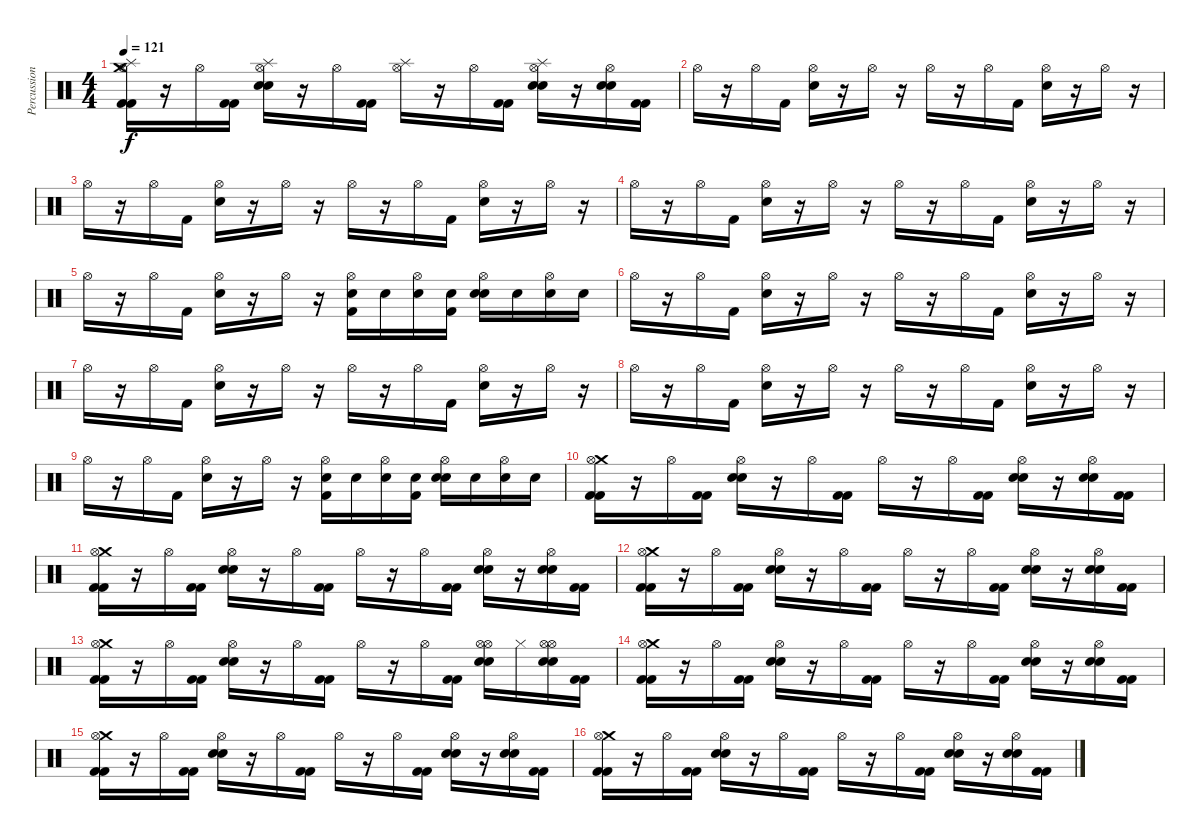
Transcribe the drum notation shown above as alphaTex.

\track ("Percussion- Mike" "Percussion") {instrument percussion}
\staff {score}
\articulation defaults
\ts (4 4)
\tempo 121
\clef neutral
\ks c
("Splash (hit)" "Crash medium (hit)" "Kick (hit) 2" "Kick (hit) 2" "Hi-Hat (open)").16{dy f} r.16 "Hi-Hat (open)".16 ("Kick (hit) 2" "Kick (hit) 2").16 ("Splash (hit)" "Snare (hit) 2" "Snare (hit) 2" "Hi-Hat (open)").16 r.16 "Hi-Hat (open)".16 ("Kick (hit) 2" "Kick (hit) 2").16 ("Splash (hit)" "Hi-Hat (open)").16 r.16 "Hi-Hat (open)".16 ("Kick (hit) 2" "Kick (hit) 2").16 ("Splash (hit)" "Snare (hit) 2" "Snare (hit) 2" "Hi-Hat (open)").16 r.16 ("Electric Snare (hit)" "Electric Snare (hit)" "Hi-Hat (open)").16 ("Kick (hit) 2" "Kick (hit) 2").16 |
"Hi-Hat (open)".16 r.16 "Hi-Hat (open)".16 "Kick (hit) 2".16 ("Electric Snare (hit)" "Hi-Hat (open)").16 r.16 "Hi-Hat (open)".16 r.16 "Hi-Hat (open)".16 r.16 "Hi-Hat (open)".16 "Kick (hit) 2".16 ("Electric Snare (hit)" "Hi-Hat (open)").16 r.16 "Hi-Hat (open)".16 r.16 |
"Hi-Hat (open)".16 r.16 "Hi-Hat (open)".16 "Kick (hit) 2".16 ("Electric Snare (hit)" "Hi-Hat (open)").16 r.16 "Hi-Hat (open)".16 r.16 "Hi-Hat (open)".16 r.16 "Hi-Hat (open)".16 "Kick (hit) 2".16 ("Electric Snare (hit)" "Hi-Hat (open)").16 r.16 "Hi-Hat (open)".16 r.16 |
"Hi-Hat (open)".16 r.16 "Hi-Hat (open)".16 "Kick (hit) 2".16 ("Electric Snare (hit)" "Hi-Hat (open)").16 r.16 "Hi-Hat (open)".16 r.16 "Hi-Hat (open)".16 r.16 "Hi-Hat (open)".16 "Kick (hit) 2".16 ("Electric Snare (hit)" "Hi-Hat (open)").16 r.16 "Hi-Hat (open)".16 r.16 |
"Hi-Hat (open)".16 r.16 "Hi-Hat (open)".16 "Kick (hit) 2".16 ("Electric Snare (hit)" "Hi-Hat (open)").16 r.16 "Hi-Hat (open)".16 r.16 ("Electric Snare (hit)" "Kick (hit) 2" "Hi-Hat (open)").16 "Electric Snare (hit)".16 ("Electric Snare (hit)" "Hi-Hat (open)").16 ("Electric Snare (hit)" "Kick (hit) 2").16 ("Electric Snare (hit)" "Electric Snare (hit)" "Hi-Hat (open)").16 "Electric Snare (hit)".16 ("Electric Snare (hit)" "Hi-Hat (open)").16 "Electric Snare (hit)".16 |
"Hi-Hat (open)".16 r.16 "Hi-Hat (open)".16 "Kick (hit) 2".16 ("Electric Snare (hit)" "Hi-Hat (open)").16 r.16 "Hi-Hat (open)".16 r.16 "Hi-Hat (open)".16 r.16 "Hi-Hat (open)".16 "Kick (hit) 2".16 ("Electric Snare (hit)" "Hi-Hat (open)").16 r.16 "Hi-Hat (open)".16 r.16 |
"Hi-Hat (open)".16 r.16 "Hi-Hat (open)".16 "Kick (hit) 2".16 ("Electric Snare (hit)" "Hi-Hat (open)").16 r.16 "Hi-Hat (open)".16 r.16 "Hi-Hat (open)".16 r.16 "Hi-Hat (open)".16 "Kick (hit) 2".16 ("Electric Snare (hit)" "Hi-Hat (open)").16 r.16 "Hi-Hat (open)".16 r.16 |
"Hi-Hat (open)".16 r.16 "Hi-Hat (open)".16 "Kick (hit) 2".16 ("Electric Snare (hit)" "Hi-Hat (open)").16 r.16 "Hi-Hat (open)".16 r.16 "Hi-Hat (open)".16 r.16 "Hi-Hat (open)".16 "Kick (hit) 2".16 ("Electric Snare (hit)" "Hi-Hat (open)").16 r.16 "Hi-Hat (open)".16 r.16 |
"Hi-Hat (open)".16 r.16 "Hi-Hat (open)".16 "Kick (hit) 2".16 ("Electric Snare (hit)" "Hi-Hat (open)").16 r.16 "Hi-Hat (open)".16 r.16 ("Electric Snare (hit)" "Kick (hit) 2" "Hi-Hat (open)").16 "Electric Snare (hit)".16 ("Electric Snare (hit)" "Hi-Hat (open)").16 ("Electric Snare (hit)" "Kick (hit) 2").16 ("Electric Snare (hit)" "Electric Snare (hit)" "Hi-Hat (open)").16 "Electric Snare (hit)".16 ("Electric Snare (hit)" "Hi-Hat (open)").16 "Electric Snare (hit)".16 |
("Crash medium (hit)" "Kick (hit) 2" "Kick (hit) 2" "Hi-Hat (open)").16 r.16 "Hi-Hat (open)".16 ("Kick (hit) 2" "Kick (hit) 2").16 ("Snare (hit) 2" "Snare (hit) 2" "Hi-Hat (open)").16 r.16 "Hi-Hat (open)".16 ("Kick (hit) 2" "Kick (hit) 2").16 "Hi-Hat (open)".16 r.16 "Hi-Hat (open)".16 ("Kick (hit) 2" "Kick (hit) 2").16 ("Snare (hit) 2" "Snare (hit) 2" "Hi-Hat (open)").16 r.16 ("Electric Snare (hit)" "Electric Snare (hit)" "Hi-Hat (open)").16 ("Kick (hit) 2" "Kick (hit) 2").16 |
("Crash medium (hit)" "Kick (hit) 2" "Kick (hit) 2" "Hi-Hat (open)").16 r.16 "Hi-Hat (open)".16 ("Kick (hit) 2" "Kick (hit) 2").16 ("Snare (hit) 2" "Snare (hit) 2" "Hi-Hat (open)").16 r.16 "Hi-Hat (open)".16 ("Kick (hit) 2" "Kick (hit) 2").16 "Hi-Hat (open)".16 r.16 "Hi-Hat (open)".16 ("Kick (hit) 2" "Kick (hit) 2").16 ("Snare (hit) 2" "Snare (hit) 2" "Hi-Hat (open)").16 r.16 ("Electric Snare (hit)" "Electric Snare (hit)" "Hi-Hat (open)").16 ("Kick (hit) 2" "Kick (hit) 2").16 |
("Crash medium (hit)" "Kick (hit) 2" "Kick (hit) 2" "Hi-Hat (open)").16 r.16 "Hi-Hat (open)".16 ("Kick (hit) 2" "Kick (hit) 2").16 ("Snare (hit) 2" "Snare (hit) 2" "Hi-Hat (open)").16 r.16 "Hi-Hat (open)".16 ("Kick (hit) 2" "Kick (hit) 2").16 "Hi-Hat (open)".16 r.16 "Hi-Hat (open)".16 ("Kick (hit) 2" "Kick (hit) 2").16 ("Snare (hit) 2" "Snare (hit) 2" "Hi-Hat (open)").16 r.16 ("Electric Snare (hit)" "Electric Snare (hit)" "Hi-Hat (open)").16 ("Kick (hit) 2" "Kick (hit) 2").16 |
("Crash medium (hit)" "Kick (hit) 2" "Kick (hit) 2" "Hi-Hat (open)").16 r.16 "Hi-Hat (open)".16 ("Kick (hit) 2" "Kick (hit) 2").16 ("Snare (hit) 2" "Snare (hit) 2" "Hi-Hat (open)").16 r.16 "Hi-Hat (open)".16 ("Kick (hit) 2" "Kick (hit) 2").16 "Hi-Hat (open)".16 r.16 "Hi-Hat (open)".16 ("Kick (hit) 2" "Kick (hit) 2").16 ("Hi-Hat (open)" "Snare (hit) 2" "Snare (hit) 2" "Hi-Hat (open)").16 "Hi-Hat (closed)".16 ("Hi-Hat (open)" "Electric Snare (hit)" "Electric Snare (hit)" "Hi-Hat (open)").16 ("Kick (hit) 2" "Kick (hit) 2").16 |
("Crash medium (hit)" "Kick (hit) 2" "Kick (hit) 2" "Hi-Hat (open)").16 r.16 "Hi-Hat (open)".16 ("Kick (hit) 2" "Kick (hit) 2").16 ("Snare (hit) 2" "Snare (hit) 2" "Hi-Hat (open)").16 r.16 "Hi-Hat (open)".16 ("Kick (hit) 2" "Kick (hit) 2").16 "Hi-Hat (open)".16 r.16 "Hi-Hat (open)".16 ("Kick (hit) 2" "Kick (hit) 2").16 ("Snare (hit) 2" "Snare (hit) 2" "Hi-Hat (open)").16 r.16 ("Electric Snare (hit)" "Electric Snare (hit)" "Hi-Hat (open)").16 ("Kick (hit) 2" "Kick (hit) 2").16 |
("Crash medium (hit)" "Kick (hit) 2" "Kick (hit) 2" "Hi-Hat (open)").16 r.16 "Hi-Hat (open)".16 ("Kick (hit) 2" "Kick (hit) 2").16 ("Snare (hit) 2" "Snare (hit) 2" "Hi-Hat (open)").16 r.16 "Hi-Hat (open)".16 ("Kick (hit) 2" "Kick (hit) 2").16 "Hi-Hat (open)".16 r.16 "Hi-Hat (open)".16 ("Kick (hit) 2" "Kick (hit) 2").16 ("Snare (hit) 2" "Snare (hit) 2" "Hi-Hat (open)").16 r.16 ("Electric Snare (hit)" "Electric Snare (hit)" "Hi-Hat (open)").16 ("Kick (hit) 2" "Kick (hit) 2").16 |
("Crash medium (hit)" "Kick (hit) 2" "Kick (hit) 2" "Hi-Hat (open)").16 r.16 "Hi-Hat (open)".16 ("Kick (hit) 2" "Kick (hit) 2").16 ("Snare (hit) 2" "Snare (hit) 2" "Hi-Hat (open)").16 r.16 "Hi-Hat (open)".16 ("Kick (hit) 2" "Kick (hit) 2").16 "Hi-Hat (open)".16 r.16 "Hi-Hat (open)".16 ("Kick (hit) 2" "Kick (hit) 2").16 ("Snare (hit) 2" "Snare (hit) 2" "Hi-Hat (open)").16 r.16 ("Electric Snare (hit)" "Electric Snare (hit)" "Hi-Hat (open)").16 ("Kick (hit) 2" "Kick (hit) 2").16
